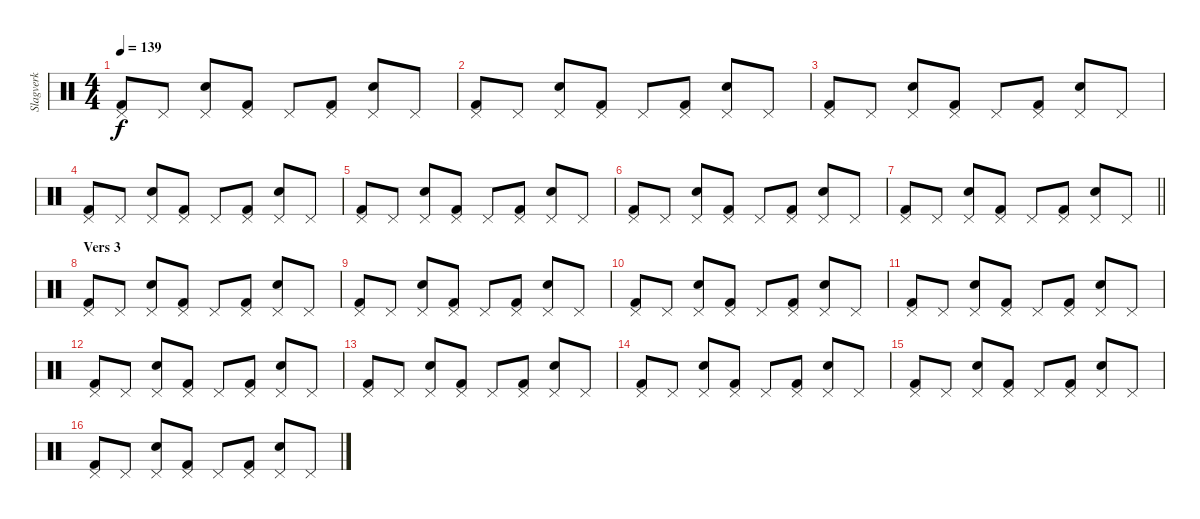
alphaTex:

\track ("Slagverk" "Slagverk") {instrument percussion}
\staff {score}
\articulation defaults
\ts (4 4)
\tempo 139
\clef neutral
\ks c
("Pedal Hi-Hat (hit)" "Kick (hit) 2").8{dy f} "Pedal Hi-Hat (hit)".8 ("Pedal Hi-Hat (hit)" "Snare (hit) 2").8 ("Pedal Hi-Hat (hit)" "Kick (hit) 2").8 "Pedal Hi-Hat (hit)".8 ("Pedal Hi-Hat (hit)" "Kick (hit) 2").8 ("Pedal Hi-Hat (hit)" "Snare (hit) 2").8 "Pedal Hi-Hat (hit)".8 |
("Pedal Hi-Hat (hit)" "Kick (hit) 2").8 "Pedal Hi-Hat (hit)".8 ("Pedal Hi-Hat (hit)" "Snare (hit) 2").8 ("Pedal Hi-Hat (hit)" "Kick (hit) 2").8 "Pedal Hi-Hat (hit)".8 ("Pedal Hi-Hat (hit)" "Kick (hit) 2").8 ("Pedal Hi-Hat (hit)" "Snare (hit) 2").8 "Pedal Hi-Hat (hit)".8 |
("Pedal Hi-Hat (hit)" "Kick (hit) 2").8 "Pedal Hi-Hat (hit)".8 ("Pedal Hi-Hat (hit)" "Snare (hit) 2").8 ("Pedal Hi-Hat (hit)" "Kick (hit) 2").8 "Pedal Hi-Hat (hit)".8 ("Pedal Hi-Hat (hit)" "Kick (hit) 2").8 ("Pedal Hi-Hat (hit)" "Snare (hit) 2").8 "Pedal Hi-Hat (hit)".8 |
("Pedal Hi-Hat (hit)" "Kick (hit) 2").8 "Pedal Hi-Hat (hit)".8 ("Pedal Hi-Hat (hit)" "Snare (hit) 2").8 ("Pedal Hi-Hat (hit)" "Kick (hit) 2").8 "Pedal Hi-Hat (hit)".8 ("Pedal Hi-Hat (hit)" "Kick (hit) 2").8 ("Pedal Hi-Hat (hit)" "Snare (hit) 2").8 "Pedal Hi-Hat (hit)".8 |
("Pedal Hi-Hat (hit)" "Kick (hit) 2").8 "Pedal Hi-Hat (hit)".8 ("Pedal Hi-Hat (hit)" "Snare (hit) 2").8 ("Pedal Hi-Hat (hit)" "Kick (hit) 2").8 "Pedal Hi-Hat (hit)".8 ("Pedal Hi-Hat (hit)" "Kick (hit) 2").8 ("Pedal Hi-Hat (hit)" "Snare (hit) 2").8 "Pedal Hi-Hat (hit)".8 |
("Pedal Hi-Hat (hit)" "Kick (hit) 2").8 "Pedal Hi-Hat (hit)".8 ("Pedal Hi-Hat (hit)" "Snare (hit) 2").8 ("Pedal Hi-Hat (hit)" "Kick (hit) 2").8 "Pedal Hi-Hat (hit)".8 ("Pedal Hi-Hat (hit)" "Kick (hit) 2").8 ("Pedal Hi-Hat (hit)" "Snare (hit) 2").8 "Pedal Hi-Hat (hit)".8 |
\barLineRight lightlight
("Pedal Hi-Hat (hit)" "Kick (hit) 2").8 "Pedal Hi-Hat (hit)".8 ("Pedal Hi-Hat (hit)" "Snare (hit) 2").8 ("Pedal Hi-Hat (hit)" "Kick (hit) 2").8 "Pedal Hi-Hat (hit)".8 ("Pedal Hi-Hat (hit)" "Kick (hit) 2").8 ("Pedal Hi-Hat (hit)" "Snare (hit) 2").8 "Pedal Hi-Hat (hit)".8 |
\section ("" "Vers 3")
("Pedal Hi-Hat (hit)" "Kick (hit) 2").8 "Pedal Hi-Hat (hit)".8 ("Pedal Hi-Hat (hit)" "Snare (hit) 2").8 ("Pedal Hi-Hat (hit)" "Kick (hit) 2").8 "Pedal Hi-Hat (hit)".8 ("Pedal Hi-Hat (hit)" "Kick (hit) 2").8 ("Pedal Hi-Hat (hit)" "Snare (hit) 2").8 "Pedal Hi-Hat (hit)".8 |
("Pedal Hi-Hat (hit)" "Kick (hit) 2").8 "Pedal Hi-Hat (hit)".8 ("Pedal Hi-Hat (hit)" "Snare (hit) 2").8 ("Pedal Hi-Hat (hit)" "Kick (hit) 2").8 "Pedal Hi-Hat (hit)".8 ("Pedal Hi-Hat (hit)" "Kick (hit) 2").8 ("Pedal Hi-Hat (hit)" "Snare (hit) 2").8 "Pedal Hi-Hat (hit)".8 |
("Pedal Hi-Hat (hit)" "Kick (hit) 2").8 "Pedal Hi-Hat (hit)".8 ("Pedal Hi-Hat (hit)" "Snare (hit) 2").8 ("Pedal Hi-Hat (hit)" "Kick (hit) 2").8 "Pedal Hi-Hat (hit)".8 ("Pedal Hi-Hat (hit)" "Kick (hit) 2").8 ("Pedal Hi-Hat (hit)" "Snare (hit) 2").8 "Pedal Hi-Hat (hit)".8 |
("Pedal Hi-Hat (hit)" "Kick (hit) 2").8 "Pedal Hi-Hat (hit)".8 ("Pedal Hi-Hat (hit)" "Snare (hit) 2").8 ("Pedal Hi-Hat (hit)" "Kick (hit) 2").8 "Pedal Hi-Hat (hit)".8 ("Pedal Hi-Hat (hit)" "Kick (hit) 2").8 ("Pedal Hi-Hat (hit)" "Snare (hit) 2").8 "Pedal Hi-Hat (hit)".8 |
("Pedal Hi-Hat (hit)" "Kick (hit) 2").8 "Pedal Hi-Hat (hit)".8 ("Pedal Hi-Hat (hit)" "Snare (hit) 2").8 ("Pedal Hi-Hat (hit)" "Kick (hit) 2").8 "Pedal Hi-Hat (hit)".8 ("Pedal Hi-Hat (hit)" "Kick (hit) 2").8 ("Pedal Hi-Hat (hit)" "Snare (hit) 2").8 "Pedal Hi-Hat (hit)".8 |
("Pedal Hi-Hat (hit)" "Kick (hit) 2").8 "Pedal Hi-Hat (hit)".8 ("Pedal Hi-Hat (hit)" "Snare (hit) 2").8 ("Pedal Hi-Hat (hit)" "Kick (hit) 2").8 "Pedal Hi-Hat (hit)".8 ("Pedal Hi-Hat (hit)" "Kick (hit) 2").8 ("Pedal Hi-Hat (hit)" "Snare (hit) 2").8 "Pedal Hi-Hat (hit)".8 |
("Pedal Hi-Hat (hit)" "Kick (hit) 2").8 "Pedal Hi-Hat (hit)".8 ("Pedal Hi-Hat (hit)" "Snare (hit) 2").8 ("Pedal Hi-Hat (hit)" "Kick (hit) 2").8 "Pedal Hi-Hat (hit)".8 ("Pedal Hi-Hat (hit)" "Kick (hit) 2").8 ("Pedal Hi-Hat (hit)" "Snare (hit) 2").8 "Pedal Hi-Hat (hit)".8 |
("Pedal Hi-Hat (hit)" "Kick (hit) 2").8 "Pedal Hi-Hat (hit)".8 ("Pedal Hi-Hat (hit)" "Snare (hit) 2").8 ("Pedal Hi-Hat (hit)" "Kick (hit) 2").8 "Pedal Hi-Hat (hit)".8 ("Pedal Hi-Hat (hit)" "Kick (hit) 2").8 ("Pedal Hi-Hat (hit)" "Snare (hit) 2").8 "Pedal Hi-Hat (hit)".8 |
("Pedal Hi-Hat (hit)" "Kick (hit) 2").8 "Pedal Hi-Hat (hit)".8 ("Pedal Hi-Hat (hit)" "Snare (hit) 2").8 ("Pedal Hi-Hat (hit)" "Kick (hit) 2").8 "Pedal Hi-Hat (hit)".8 ("Pedal Hi-Hat (hit)" "Kick (hit) 2").8 ("Pedal Hi-Hat (hit)" "Snare (hit) 2").8 "Pedal Hi-Hat (hit)".8
